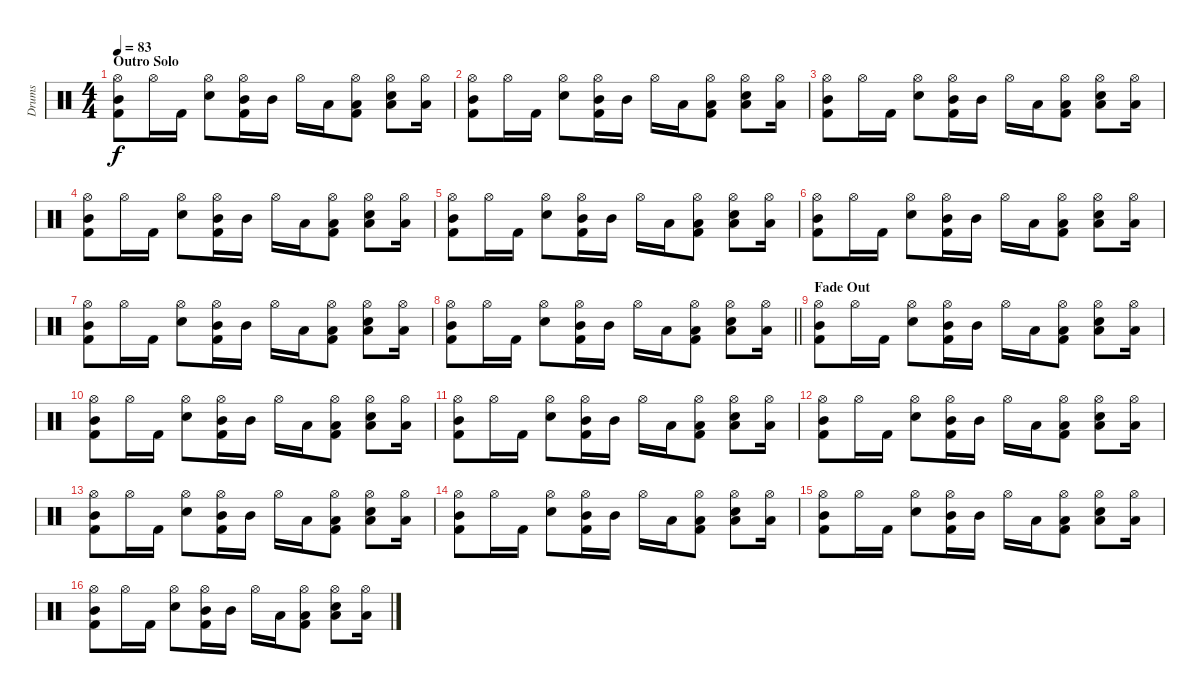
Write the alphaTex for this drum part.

\track ("Drums" "Drums") {instrument percussion}
\staff {score}
\articulation defaults
\ts (4 4)
\section ("" "Outro Solo")
\tempo 83
\clef neutral
\ks c
("Hi-Hat (open)" "Mid Tom (hit)" "Kick (hit) 2").8{dy f} "Hi-Hat (open)".16 "Kick (hit) 2".16 ("Hi-Hat (open)" "Snare (hit) 2").8 ("Hi-Hat (open)" "Mid Tom (hit)" "Kick (hit) 2").16 "Mid Tom (hit)".16 "Hi-Hat (open)".16 "Low Tom (hit)".16 ("Hi-Hat (open)" "Low Tom (hit)" "Kick (hit) 2").8 ("Hi-Hat (open)" "Low Tom (hit)" "Snare (hit) 2").8 ("Hi-Hat (open)" "Low Floor Tom (hit)").16 |
("Hi-Hat (open)" "Mid Tom (hit)" "Kick (hit) 2").8 "Hi-Hat (open)".16 "Kick (hit) 2".16 ("Hi-Hat (open)" "Snare (hit) 2").8 ("Hi-Hat (open)" "Mid Tom (hit)" "Kick (hit) 2").16 "Mid Tom (hit)".16 "Hi-Hat (open)".16 "Low Tom (hit)".16 ("Hi-Hat (open)" "Low Tom (hit)" "Kick (hit) 2").8 ("Hi-Hat (open)" "Low Tom (hit)" "Snare (hit) 2").8 ("Hi-Hat (open)" "Low Floor Tom (hit)").16 |
("Hi-Hat (open)" "Mid Tom (hit)" "Kick (hit) 2").8 "Hi-Hat (open)".16 "Kick (hit) 2".16 ("Hi-Hat (open)" "Snare (hit) 2").8 ("Hi-Hat (open)" "Mid Tom (hit)" "Kick (hit) 2").16 "Mid Tom (hit)".16 "Hi-Hat (open)".16 "Low Tom (hit)".16 ("Hi-Hat (open)" "Low Tom (hit)" "Kick (hit) 2").8 ("Hi-Hat (open)" "Low Tom (hit)" "Snare (hit) 2").8 ("Hi-Hat (open)" "Low Floor Tom (hit)").16 |
("Hi-Hat (open)" "Mid Tom (hit)" "Kick (hit) 2").8 "Hi-Hat (open)".16 "Kick (hit) 2".16 ("Hi-Hat (open)" "Snare (hit) 2").8 ("Hi-Hat (open)" "Mid Tom (hit)" "Kick (hit) 2").16 "Mid Tom (hit)".16 "Hi-Hat (open)".16 "Low Tom (hit)".16 ("Hi-Hat (open)" "Low Tom (hit)" "Kick (hit) 2").8 ("Hi-Hat (open)" "Low Tom (hit)" "Snare (hit) 2").8 ("Hi-Hat (open)" "Low Floor Tom (hit)").16 |
("Hi-Hat (open)" "Mid Tom (hit)" "Kick (hit) 2").8 "Hi-Hat (open)".16 "Kick (hit) 2".16 ("Hi-Hat (open)" "Snare (hit) 2").8 ("Hi-Hat (open)" "Mid Tom (hit)" "Kick (hit) 2").16 "Mid Tom (hit)".16 "Hi-Hat (open)".16 "Low Tom (hit)".16 ("Hi-Hat (open)" "Low Tom (hit)" "Kick (hit) 2").8 ("Hi-Hat (open)" "Low Tom (hit)" "Snare (hit) 2").8 ("Hi-Hat (open)" "Low Floor Tom (hit)").16 |
("Hi-Hat (open)" "Mid Tom (hit)" "Kick (hit) 2").8 "Hi-Hat (open)".16 "Kick (hit) 2".16 ("Hi-Hat (open)" "Snare (hit) 2").8 ("Hi-Hat (open)" "Mid Tom (hit)" "Kick (hit) 2").16 "Mid Tom (hit)".16 "Hi-Hat (open)".16 "Low Tom (hit)".16 ("Hi-Hat (open)" "Low Tom (hit)" "Kick (hit) 2").8 ("Hi-Hat (open)" "Low Tom (hit)" "Snare (hit) 2").8 ("Hi-Hat (open)" "Low Floor Tom (hit)").16 |
("Hi-Hat (open)" "Mid Tom (hit)" "Kick (hit) 2").8 "Hi-Hat (open)".16 "Kick (hit) 2".16 ("Hi-Hat (open)" "Snare (hit) 2").8 ("Hi-Hat (open)" "Mid Tom (hit)" "Kick (hit) 2").16 "Mid Tom (hit)".16 "Hi-Hat (open)".16 "Low Tom (hit)".16 ("Hi-Hat (open)" "Low Tom (hit)" "Kick (hit) 2").8 ("Hi-Hat (open)" "Low Tom (hit)" "Snare (hit) 2").8 ("Hi-Hat (open)" "Low Floor Tom (hit)").16 |
\barLineRight lightlight
("Hi-Hat (open)" "Mid Tom (hit)" "Kick (hit) 2").8 "Hi-Hat (open)".16 "Kick (hit) 2".16 ("Hi-Hat (open)" "Snare (hit) 2").8 ("Hi-Hat (open)" "Mid Tom (hit)" "Kick (hit) 2").16 "Mid Tom (hit)".16 "Hi-Hat (open)".16 "Low Tom (hit)".16 ("Hi-Hat (open)" "Low Tom (hit)" "Kick (hit) 2").8 ("Hi-Hat (open)" "Low Tom (hit)" "Snare (hit) 2").8 ("Hi-Hat (open)" "Low Floor Tom (hit)").16 |
\section ("" "Fade Out")
("Hi-Hat (open)" "Mid Tom (hit)" "Kick (hit) 2").8 "Hi-Hat (open)".16 "Kick (hit) 2".16 ("Hi-Hat (open)" "Snare (hit) 2").8 ("Hi-Hat (open)" "Mid Tom (hit)" "Kick (hit) 2").16 "Mid Tom (hit)".16 "Hi-Hat (open)".16 "Low Tom (hit)".16 ("Hi-Hat (open)" "Low Tom (hit)" "Kick (hit) 2").8 ("Hi-Hat (open)" "Low Tom (hit)" "Snare (hit) 2").8 ("Hi-Hat (open)" "Low Floor Tom (hit)").16 |
("Hi-Hat (open)" "Mid Tom (hit)" "Kick (hit) 2").8 "Hi-Hat (open)".16 "Kick (hit) 2".16 ("Hi-Hat (open)" "Snare (hit) 2").8 ("Hi-Hat (open)" "Mid Tom (hit)" "Kick (hit) 2").16 "Mid Tom (hit)".16 "Hi-Hat (open)".16 "Low Tom (hit)".16 ("Hi-Hat (open)" "Low Tom (hit)" "Kick (hit) 2").8 ("Hi-Hat (open)" "Low Tom (hit)" "Snare (hit) 2").8 ("Hi-Hat (open)" "Low Floor Tom (hit)").16 |
("Hi-Hat (open)" "Mid Tom (hit)" "Kick (hit) 2").8 "Hi-Hat (open)".16 "Kick (hit) 2".16 ("Hi-Hat (open)" "Snare (hit) 2").8 ("Hi-Hat (open)" "Mid Tom (hit)" "Kick (hit) 2").16 "Mid Tom (hit)".16 "Hi-Hat (open)".16 "Low Tom (hit)".16 ("Hi-Hat (open)" "Low Tom (hit)" "Kick (hit) 2").8 ("Hi-Hat (open)" "Low Tom (hit)" "Snare (hit) 2").8 ("Hi-Hat (open)" "Low Floor Tom (hit)").16 |
("Hi-Hat (open)" "Mid Tom (hit)" "Kick (hit) 2").8 "Hi-Hat (open)".16 "Kick (hit) 2".16 ("Hi-Hat (open)" "Snare (hit) 2").8 ("Hi-Hat (open)" "Mid Tom (hit)" "Kick (hit) 2").16 "Mid Tom (hit)".16 "Hi-Hat (open)".16 "Low Tom (hit)".16 ("Hi-Hat (open)" "Low Tom (hit)" "Kick (hit) 2").8 ("Hi-Hat (open)" "Low Tom (hit)" "Snare (hit) 2").8 ("Hi-Hat (open)" "Low Floor Tom (hit)").16 |
("Hi-Hat (open)" "Mid Tom (hit)" "Kick (hit) 2").8 "Hi-Hat (open)".16 "Kick (hit) 2".16 ("Hi-Hat (open)" "Snare (hit) 2").8 ("Hi-Hat (open)" "Mid Tom (hit)" "Kick (hit) 2").16 "Mid Tom (hit)".16 "Hi-Hat (open)".16 "Low Tom (hit)".16 ("Hi-Hat (open)" "Low Tom (hit)" "Kick (hit) 2").8 ("Hi-Hat (open)" "Low Tom (hit)" "Snare (hit) 2").8 ("Hi-Hat (open)" "Low Floor Tom (hit)").16 |
("Hi-Hat (open)" "Mid Tom (hit)" "Kick (hit) 2").8 "Hi-Hat (open)".16 "Kick (hit) 2".16 ("Hi-Hat (open)" "Snare (hit) 2").8 ("Hi-Hat (open)" "Mid Tom (hit)" "Kick (hit) 2").16 "Mid Tom (hit)".16 "Hi-Hat (open)".16 "Low Tom (hit)".16 ("Hi-Hat (open)" "Low Tom (hit)" "Kick (hit) 2").8 ("Hi-Hat (open)" "Low Tom (hit)" "Snare (hit) 2").8 ("Hi-Hat (open)" "Low Floor Tom (hit)").16 |
("Hi-Hat (open)" "Mid Tom (hit)" "Kick (hit) 2").8 "Hi-Hat (open)".16 "Kick (hit) 2".16 ("Hi-Hat (open)" "Snare (hit) 2").8 ("Hi-Hat (open)" "Mid Tom (hit)" "Kick (hit) 2").16 "Mid Tom (hit)".16 "Hi-Hat (open)".16 "Low Tom (hit)".16 ("Hi-Hat (open)" "Low Tom (hit)" "Kick (hit) 2").8 ("Hi-Hat (open)" "Low Tom (hit)" "Snare (hit) 2").8 ("Hi-Hat (open)" "Low Floor Tom (hit)").16 |
("Hi-Hat (open)" "Mid Tom (hit)" "Kick (hit) 2").8 "Hi-Hat (open)".16 "Kick (hit) 2".16 ("Hi-Hat (open)" "Snare (hit) 2").8 ("Hi-Hat (open)" "Mid Tom (hit)" "Kick (hit) 2").16 "Mid Tom (hit)".16 "Hi-Hat (open)".16 "Low Tom (hit)".16 ("Hi-Hat (open)" "Low Tom (hit)" "Kick (hit) 2").8 ("Hi-Hat (open)" "Low Tom (hit)" "Snare (hit) 2").8 ("Hi-Hat (open)" "Low Floor Tom (hit)").16
